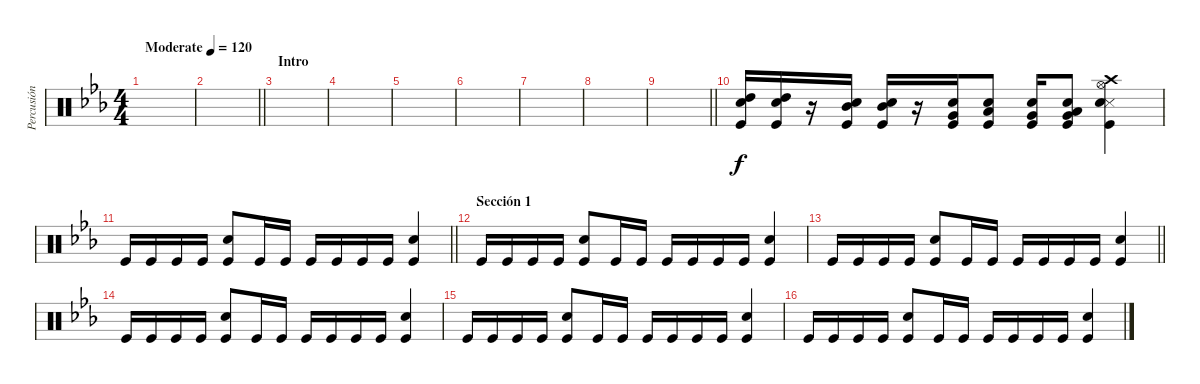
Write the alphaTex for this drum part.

\track ("Percusión" "Percusión") {instrument percussion}
\staff {score}
\articulation defaults
\ts (4 4)
\tempo (120 "Moderate")
\clef neutral
\ks eb
|
\barLineRight lightlight
|
\section ("" "Intro")
|
|
|
|
|
|
\barLineRight lightlight
|
\section ("" "")
("Snare (hit) 2" "High Tom (hit)" "Kick (hit)").16 ("Snare (hit) 2" "High Tom (hit)" "Kick (hit)").16 r.16 ("Snare (hit) 2" "Mid Tom (hit)" "Kick (hit)").16 ("Snare (hit) 2" "Mid Tom (hit)" "Kick (hit)").16 r.16 ("Snare (hit) 2" "Very Low Tom (hit)" "Kick (hit)").16 ("Snare (hit) 2" "Low Tom (hit)" "Kick (hit)").8 ("Snare (hit) 2" "Very Low Tom (hit)" "Kick (hit)").16 ("Snare (hit) 2" "Very Low Tom (hit)" "Low Tom (hit)" "Kick (hit)").8 ("Crash high (hit)" "Snare (side stick) 3" "Snare (hit) 2" "Hi-Hat (open)" "Kick (hit)").4 |
\barLineRight lightlight "Kick (hit)".16 "Kick (hit)".16 "Kick (hit)".16 "Kick (hit)".16
("Snare (hit) 2" "Kick (hit)").8 "Kick (hit)".16 "Kick (hit)".16 "Kick (hit)".16 "Kick (hit)".16 "Kick (hit)".16 "Kick (hit)".16 ("Snare (hit) 2" "Kick (hit)").4 |
\section ("" "Sección 1")
"Kick (hit)".16 "Kick (hit)".16 "Kick (hit)".16 "Kick (hit)".16 ("Snare (hit) 2" "Kick (hit)").8 "Kick (hit)".16 "Kick (hit)".16 "Kick (hit)".16 "Kick (hit)".16 "Kick (hit)".16 "Kick (hit)".16 ("Snare (hit) 2" "Kick (hit)").4 |
\barLineRight lightlight "Kick (hit)".16 "Kick (hit)".16 "Kick (hit)".16 "Kick (hit)".16
("Snare (hit) 2" "Kick (hit)").8 "Kick (hit)".16 "Kick (hit)".16 "Kick (hit)".16 "Kick (hit)".16 "Kick (hit)".16 "Kick (hit)".16 ("Snare (hit) 2" "Kick (hit)").4 |
"Kick (hit)".16 "Kick (hit)".16 "Kick (hit)".16 "Kick (hit)".16 ("Snare (hit) 2" "Kick (hit)").8 "Kick (hit)".16 "Kick (hit)".16 "Kick (hit)".16 "Kick (hit)".16 "Kick (hit)".16 "Kick (hit)".16 ("Snare (hit) 2" "Kick (hit)").4 |
"Kick (hit)".16 "Kick (hit)".16 "Kick (hit)".16 "Kick (hit)".16 ("Snare (hit) 2" "Kick (hit)").8 "Kick (hit)".16 "Kick (hit)".16 "Kick (hit)".16 "Kick (hit)".16 "Kick (hit)".16 "Kick (hit)".16 ("Snare (hit) 2" "Kick (hit)").4 |
"Kick (hit)".16 "Kick (hit)".16 "Kick (hit)".16 "Kick (hit)".16 ("Snare (hit) 2" "Kick (hit)").8 "Kick (hit)".16 "Kick (hit)".16 "Kick (hit)".16 "Kick (hit)".16 "Kick (hit)".16 "Kick (hit)".16 ("Snare (hit) 2" "Kick (hit)").4
